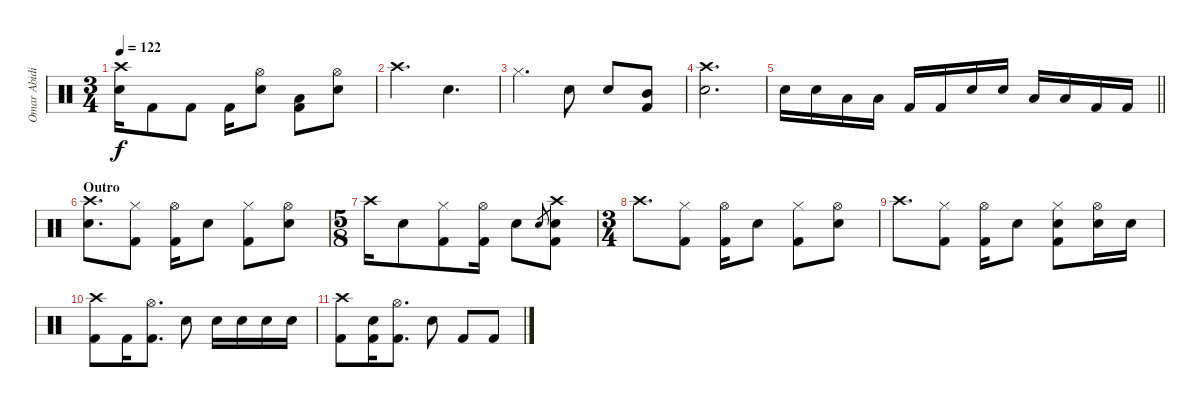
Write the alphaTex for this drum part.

\track ("Omar Abidi" "Omar Abidi") {instrument percussion}
\staff {score}
\articulation defaults
\ts (3 4)
\tempo 122
\clef neutral
\ks c
("Crash high (hit)" "Electric Snare (hit)").16{dy f} "Kick (hit) 2".8 "Kick (hit) 2".8 "Kick (hit) 2".16 ("Hi-Hat (open)" "Electric Snare (hit)").8 ("Low Tom (hit)" "Kick (hit) 2").8 ("Hi-Hat (open)" "Electric Snare (hit)").8 |
"Crash high (hit)".4{d} "Electric Snare (hit)".4{d} |
"Hi-Hat (closed)".4{d} "Electric Snare (hit)".8 "Electric Snare (hit)".8 ("Mid Tom (hit)" "Kick (hit) 2").8 |
("Crash high (hit)" "Electric Snare (hit)").2{d} |
\barLineRight lightlight "Electric Snare (hit)".16 "Electric Snare (hit)".16 "Low Tom (hit)".16 "Low Tom (hit)".16 "Kick (hit) 2".16 "Kick (hit) 2".16 "Electric Snare (hit)".16 "Electric Snare (hit)".16 "Low Tom (hit)".16 "Low Tom (hit)".16 "Kick (hit) 2".16 "Kick (hit) 2".16
|
\section ("" "Outro")
("Crash high (hit)" "Electric Snare (hit)").8{d} ("Hi-Hat (closed)" "Kick (hit) 2").8 ("Hi-Hat (open)" "Kick (hit) 2").16 "Electric Snare (hit)".8 ("Hi-Hat (closed)" "Kick (hit) 2").8 ("Hi-Hat (open)" "Electric Snare (hit)").8 |
\ts (5 8)
"Crash high (hit)".16 "Electric Snare (hit)".8 ("Hi-Hat (closed)" "Kick (hit) 2").8 ("Hi-Hat (open)" "Kick (hit) 2").16 "Electric Snare (hit)".8 "Electric Snare (hit)".8{gr} ("Crash high (hit)" "Electric Snare (hit)" "Kick (hit) 2").8 |
\ts (3 4)
"Crash high (hit)".8{d} ("Hi-Hat (closed)" "Kick (hit) 2").8 ("Hi-Hat (open)" "Kick (hit) 2").16 "Electric Snare (hit)".8 ("Hi-Hat (closed)" "Kick (hit) 2").8 ("Hi-Hat (open)" "Electric Snare (hit)").8 |
"Crash high (hit)".8{d} ("Hi-Hat (closed)" "Kick (hit) 2").8 ("Hi-Hat (open)" "Kick (hit) 2").16 "Electric Snare (hit)".8 ("Hi-Hat (closed)" "Electric Snare (hit)" "Kick (hit) 2").8 ("Hi-Hat (open)" "Electric Snare (hit)").16 "Electric Snare (hit)".16 |
("Crash high (hit)" "Kick (hit) 2").8 "Kick (hit) 2".16 ("Hi-Hat (open)" "Kick (hit) 2").8{d} "Electric Snare (hit)".8 "Electric Snare (hit)".16 "Electric Snare (hit)".16 "Electric Snare (hit)".16 "Electric Snare (hit)".16 |
("Crash high (hit)" "Kick (hit) 2").8 ("Electric Snare (hit)" "Kick (hit) 2").16 ("Hi-Hat (open)" "Kick (hit) 2").8{d} "Electric Snare (hit)".8 "Kick (hit) 2".8 "Kick (hit) 2".8
